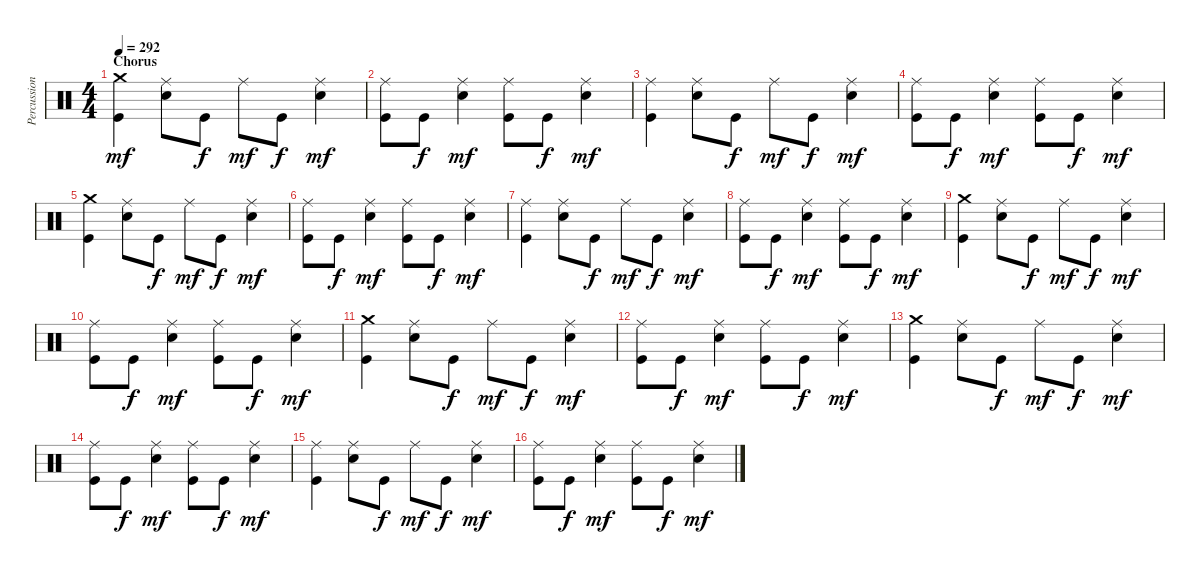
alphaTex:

\track ("Percussion" "Percussion") {instrument percussion}
\staff {score}
\articulation defaults
\ts (4 4)
\section ("" "Chorus")
\tempo 292
\clef neutral
\ks c
("Crash medium (hit)" "Kick (hit)").4{dy mf} ("Ride (middle)" "Electric Snare (hit)").8 "Kick (hit)".8{dy f} "Ride (middle)".8{dy mf} "Kick (hit)".8{dy f} ("Ride (middle)" "Electric Snare (hit)").4{dy mf} |
("Ride (middle)" "Kick (hit)").8 "Kick (hit)".8{dy f} ("Ride (middle)" "Electric Snare (hit)").4{dy mf} ("Ride (middle)" "Kick (hit)").8 "Kick (hit)".8{dy f} ("Ride (middle)" "Electric Snare (hit)").4{dy mf} |
("Ride (middle)" "Kick (hit)").4 ("Ride (middle)" "Electric Snare (hit)").8 "Kick (hit)".8{dy f} "Ride (middle)".8{dy mf} "Kick (hit)".8{dy f} ("Ride (middle)" "Electric Snare (hit)").4{dy mf} |
("Ride (middle)" "Kick (hit)").8 "Kick (hit)".8{dy f} ("Ride (middle)" "Electric Snare (hit)").4{dy mf} ("Ride (middle)" "Kick (hit)").8 "Kick (hit)".8{dy f} ("Ride (middle)" "Electric Snare (hit)").4{dy mf} |
("Crash medium (hit)" "Kick (hit)").4 ("Ride (middle)" "Electric Snare (hit)").8 "Kick (hit)".8{dy f} "Ride (middle)".8{dy mf} "Kick (hit)".8{dy f} ("Ride (middle)" "Electric Snare (hit)").4{dy mf} |
("Ride (middle)" "Kick (hit)").8 "Kick (hit)".8{dy f} ("Ride (middle)" "Electric Snare (hit)").4{dy mf} ("Ride (middle)" "Kick (hit)").8 "Kick (hit)".8{dy f} ("Ride (middle)" "Electric Snare (hit)").4{dy mf} |
("Ride (middle)" "Kick (hit)").4 ("Ride (middle)" "Electric Snare (hit)").8 "Kick (hit)".8{dy f} "Ride (middle)".8{dy mf} "Kick (hit)".8{dy f} ("Ride (middle)" "Electric Snare (hit)").4{dy mf} |
("Ride (middle)" "Kick (hit)").8 "Kick (hit)".8{dy f} ("Ride (middle)" "Electric Snare (hit)").4{dy mf} ("Ride (middle)" "Kick (hit)").8 "Kick (hit)".8{dy f} ("Ride (middle)" "Electric Snare (hit)").4{dy mf} |
("Crash medium (hit)" "Kick (hit)").4 ("Ride (middle)" "Electric Snare (hit)").8 "Kick (hit)".8{dy f} "Ride (middle)".8{dy mf} "Kick (hit)".8{dy f} ("Ride (middle)" "Electric Snare (hit)").4{dy mf} |
("Ride (middle)" "Kick (hit)").8 "Kick (hit)".8{dy f} ("Ride (middle)" "Electric Snare (hit)").4{dy mf} ("Ride (middle)" "Kick (hit)").8 "Kick (hit)".8{dy f} ("Ride (middle)" "Electric Snare (hit)").4{dy mf} |
("Crash medium (hit)" "Kick (hit)").4 ("Ride (middle)" "Electric Snare (hit)").8 "Kick (hit)".8{dy f} "Ride (middle)".8{dy mf} "Kick (hit)".8{dy f} ("Ride (middle)" "Electric Snare (hit)").4{dy mf} |
("Ride (middle)" "Kick (hit)").8 "Kick (hit)".8{dy f} ("Ride (middle)" "Electric Snare (hit)").4{dy mf} ("Ride (middle)" "Kick (hit)").8 "Kick (hit)".8{dy f} ("Ride (middle)" "Electric Snare (hit)").4{dy mf} |
("Crash medium (hit)" "Kick (hit)").4 ("Ride (middle)" "Electric Snare (hit)").8 "Kick (hit)".8{dy f} "Ride (middle)".8{dy mf} "Kick (hit)".8{dy f} ("Ride (middle)" "Electric Snare (hit)").4{dy mf} |
("Ride (middle)" "Kick (hit)").8 "Kick (hit)".8{dy f} ("Ride (middle)" "Electric Snare (hit)").4{dy mf} ("Ride (middle)" "Kick (hit)").8 "Kick (hit)".8{dy f} ("Ride (middle)" "Electric Snare (hit)").4{dy mf} |
("Ride (middle)" "Kick (hit)").4 ("Ride (middle)" "Electric Snare (hit)").8 "Kick (hit)".8{dy f} "Ride (middle)".8{dy mf} "Kick (hit)".8{dy f} ("Ride (middle)" "Electric Snare (hit)").4{dy mf} |
("Ride (middle)" "Kick (hit)").8 "Kick (hit)".8{dy f} ("Ride (middle)" "Electric Snare (hit)").4{dy mf} ("Ride (middle)" "Kick (hit)").8 "Kick (hit)".8{dy f} ("Ride (middle)" "Electric Snare (hit)").4{dy mf}
